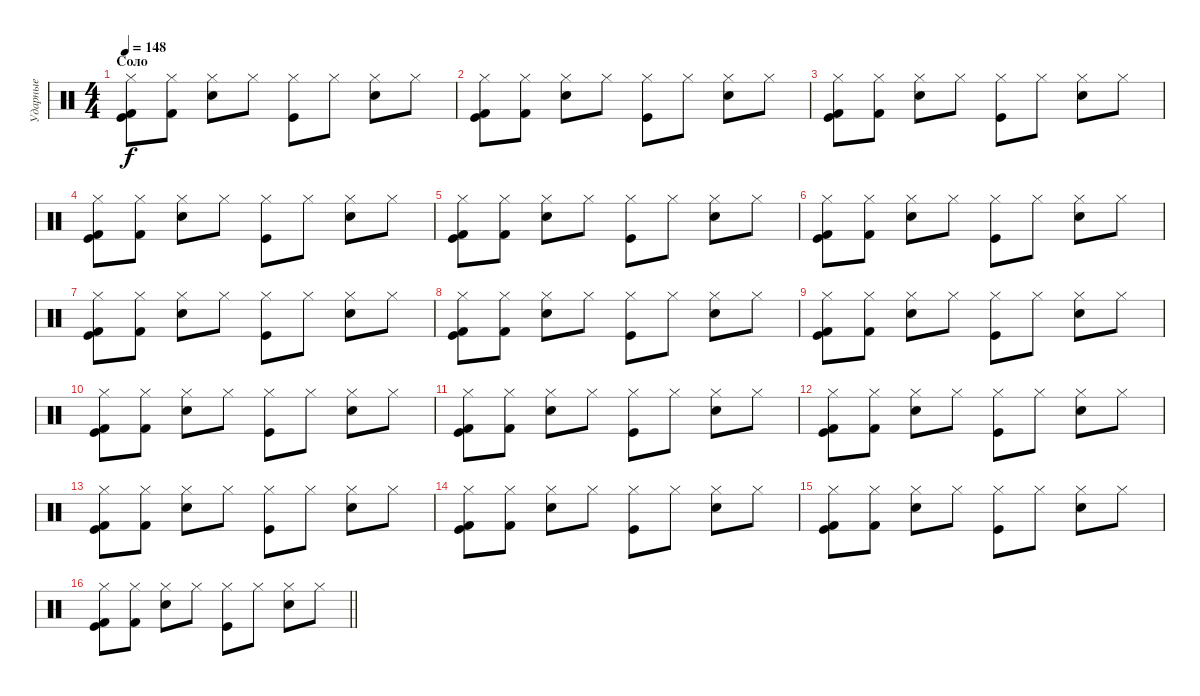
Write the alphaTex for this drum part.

\track ("Ударные" "Ударные") {instrument percussion}
\staff {score}
\articulation defaults
\ts (4 4)
\section ("" "Соло")
\tempo 148
\clef neutral
\ks c
("Hi-Hat (closed)" "Kick (hit)" "Kick (hit) 2").8{dy f} ("Hi-Hat (closed)" "Kick (hit) 2").8 ("Hi-Hat (closed)" "Snare (hit) 2").8 "Hi-Hat (closed)".8 ("Hi-Hat (closed)" "Kick (hit)").8 "Hi-Hat (closed)".8 ("Hi-Hat (closed)" "Snare (hit) 2").8 "Hi-Hat (closed)".8 |
("Hi-Hat (closed)" "Kick (hit)" "Kick (hit) 2").8 ("Hi-Hat (closed)" "Kick (hit) 2").8 ("Hi-Hat (closed)" "Snare (hit) 2").8 "Hi-Hat (closed)".8 ("Hi-Hat (closed)" "Kick (hit)").8 "Hi-Hat (closed)".8 ("Hi-Hat (closed)" "Snare (hit) 2").8 "Hi-Hat (closed)".8 |
("Hi-Hat (closed)" "Kick (hit)" "Kick (hit) 2").8 ("Hi-Hat (closed)" "Kick (hit) 2").8 ("Hi-Hat (closed)" "Snare (hit) 2").8 "Hi-Hat (closed)".8 ("Hi-Hat (closed)" "Kick (hit)").8 "Hi-Hat (closed)".8 ("Hi-Hat (closed)" "Snare (hit) 2").8 "Hi-Hat (closed)".8 |
("Hi-Hat (closed)" "Kick (hit)" "Kick (hit) 2").8 ("Hi-Hat (closed)" "Kick (hit) 2").8 ("Hi-Hat (closed)" "Snare (hit) 2").8 "Hi-Hat (closed)".8 ("Hi-Hat (closed)" "Kick (hit)").8 "Hi-Hat (closed)".8 ("Hi-Hat (closed)" "Snare (hit) 2").8 "Hi-Hat (closed)".8 |
("Hi-Hat (closed)" "Kick (hit)" "Kick (hit) 2").8 ("Hi-Hat (closed)" "Kick (hit) 2").8 ("Hi-Hat (closed)" "Snare (hit) 2").8 "Hi-Hat (closed)".8 ("Hi-Hat (closed)" "Kick (hit)").8 "Hi-Hat (closed)".8 ("Hi-Hat (closed)" "Snare (hit) 2").8 "Hi-Hat (closed)".8 |
("Hi-Hat (closed)" "Kick (hit)" "Kick (hit) 2").8 ("Hi-Hat (closed)" "Kick (hit) 2").8 ("Hi-Hat (closed)" "Snare (hit) 2").8 "Hi-Hat (closed)".8 ("Hi-Hat (closed)" "Kick (hit)").8 "Hi-Hat (closed)".8 ("Hi-Hat (closed)" "Snare (hit) 2").8 "Hi-Hat (closed)".8 |
("Hi-Hat (closed)" "Kick (hit)" "Kick (hit) 2").8 ("Hi-Hat (closed)" "Kick (hit) 2").8 ("Hi-Hat (closed)" "Snare (hit) 2").8 "Hi-Hat (closed)".8 ("Hi-Hat (closed)" "Kick (hit)").8 "Hi-Hat (closed)".8 ("Hi-Hat (closed)" "Snare (hit) 2").8 "Hi-Hat (closed)".8 |
("Hi-Hat (closed)" "Kick (hit)" "Kick (hit) 2").8 ("Hi-Hat (closed)" "Kick (hit) 2").8 ("Hi-Hat (closed)" "Snare (hit) 2").8 "Hi-Hat (closed)".8 ("Hi-Hat (closed)" "Kick (hit)").8 "Hi-Hat (closed)".8 ("Hi-Hat (closed)" "Snare (hit) 2").8 "Hi-Hat (closed)".8 |
("Hi-Hat (closed)" "Kick (hit)" "Kick (hit) 2").8 ("Hi-Hat (closed)" "Kick (hit) 2").8 ("Hi-Hat (closed)" "Snare (hit) 2").8 "Hi-Hat (closed)".8 ("Hi-Hat (closed)" "Kick (hit)").8 "Hi-Hat (closed)".8 ("Hi-Hat (closed)" "Snare (hit) 2").8 "Hi-Hat (closed)".8 |
("Hi-Hat (closed)" "Kick (hit)" "Kick (hit) 2").8 ("Hi-Hat (closed)" "Kick (hit) 2").8 ("Hi-Hat (closed)" "Snare (hit) 2").8 "Hi-Hat (closed)".8 ("Hi-Hat (closed)" "Kick (hit)").8 "Hi-Hat (closed)".8 ("Hi-Hat (closed)" "Snare (hit) 2").8 "Hi-Hat (closed)".8 |
("Hi-Hat (closed)" "Kick (hit)" "Kick (hit) 2").8 ("Hi-Hat (closed)" "Kick (hit) 2").8 ("Hi-Hat (closed)" "Snare (hit) 2").8 "Hi-Hat (closed)".8 ("Hi-Hat (closed)" "Kick (hit)").8 "Hi-Hat (closed)".8 ("Hi-Hat (closed)" "Snare (hit) 2").8 "Hi-Hat (closed)".8 |
("Hi-Hat (closed)" "Kick (hit)" "Kick (hit) 2").8 ("Hi-Hat (closed)" "Kick (hit) 2").8 ("Hi-Hat (closed)" "Snare (hit) 2").8 "Hi-Hat (closed)".8 ("Hi-Hat (closed)" "Kick (hit)").8 "Hi-Hat (closed)".8 ("Hi-Hat (closed)" "Snare (hit) 2").8 "Hi-Hat (closed)".8 |
("Hi-Hat (closed)" "Kick (hit)" "Kick (hit) 2").8 ("Hi-Hat (closed)" "Kick (hit) 2").8 ("Hi-Hat (closed)" "Snare (hit) 2").8 "Hi-Hat (closed)".8 ("Hi-Hat (closed)" "Kick (hit)").8 "Hi-Hat (closed)".8 ("Hi-Hat (closed)" "Snare (hit) 2").8 "Hi-Hat (closed)".8 |
("Hi-Hat (closed)" "Kick (hit)" "Kick (hit) 2").8 ("Hi-Hat (closed)" "Kick (hit) 2").8 ("Hi-Hat (closed)" "Snare (hit) 2").8 "Hi-Hat (closed)".8 ("Hi-Hat (closed)" "Kick (hit)").8 "Hi-Hat (closed)".8 ("Hi-Hat (closed)" "Snare (hit) 2").8 "Hi-Hat (closed)".8 |
("Hi-Hat (closed)" "Kick (hit)" "Kick (hit) 2").8 ("Hi-Hat (closed)" "Kick (hit) 2").8 ("Hi-Hat (closed)" "Snare (hit) 2").8 "Hi-Hat (closed)".8 ("Hi-Hat (closed)" "Kick (hit)").8 "Hi-Hat (closed)".8 ("Hi-Hat (closed)" "Snare (hit) 2").8 "Hi-Hat (closed)".8 |
\barLineRight lightlight
("Hi-Hat (closed)" "Kick (hit)" "Kick (hit) 2").8 ("Hi-Hat (closed)" "Kick (hit) 2").8 ("Hi-Hat (closed)" "Snare (hit) 2").8 "Hi-Hat (closed)".8 ("Hi-Hat (closed)" "Kick (hit)").8 "Hi-Hat (closed)".8 ("Hi-Hat (closed)" "Snare (hit) 2").8 "Hi-Hat (closed)".8
